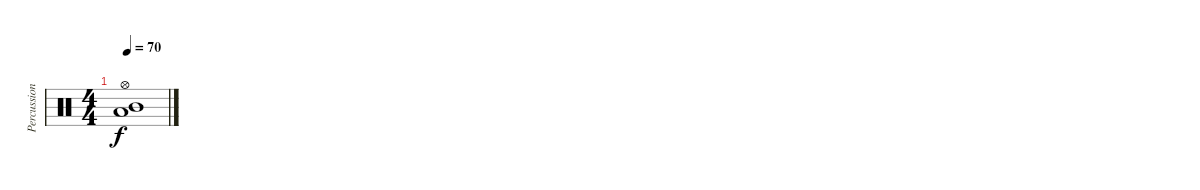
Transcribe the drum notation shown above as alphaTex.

\track ("Percussions" "Percussion") {instrument percussion}
\staff {score}
\articulation defaults
\ts (4 4)
\tempo 70
\clef neutral
\ks c
("Low Tom (hit)" "Hi-Hat (open)" "Mid Tom (hit)").1{dy f}
